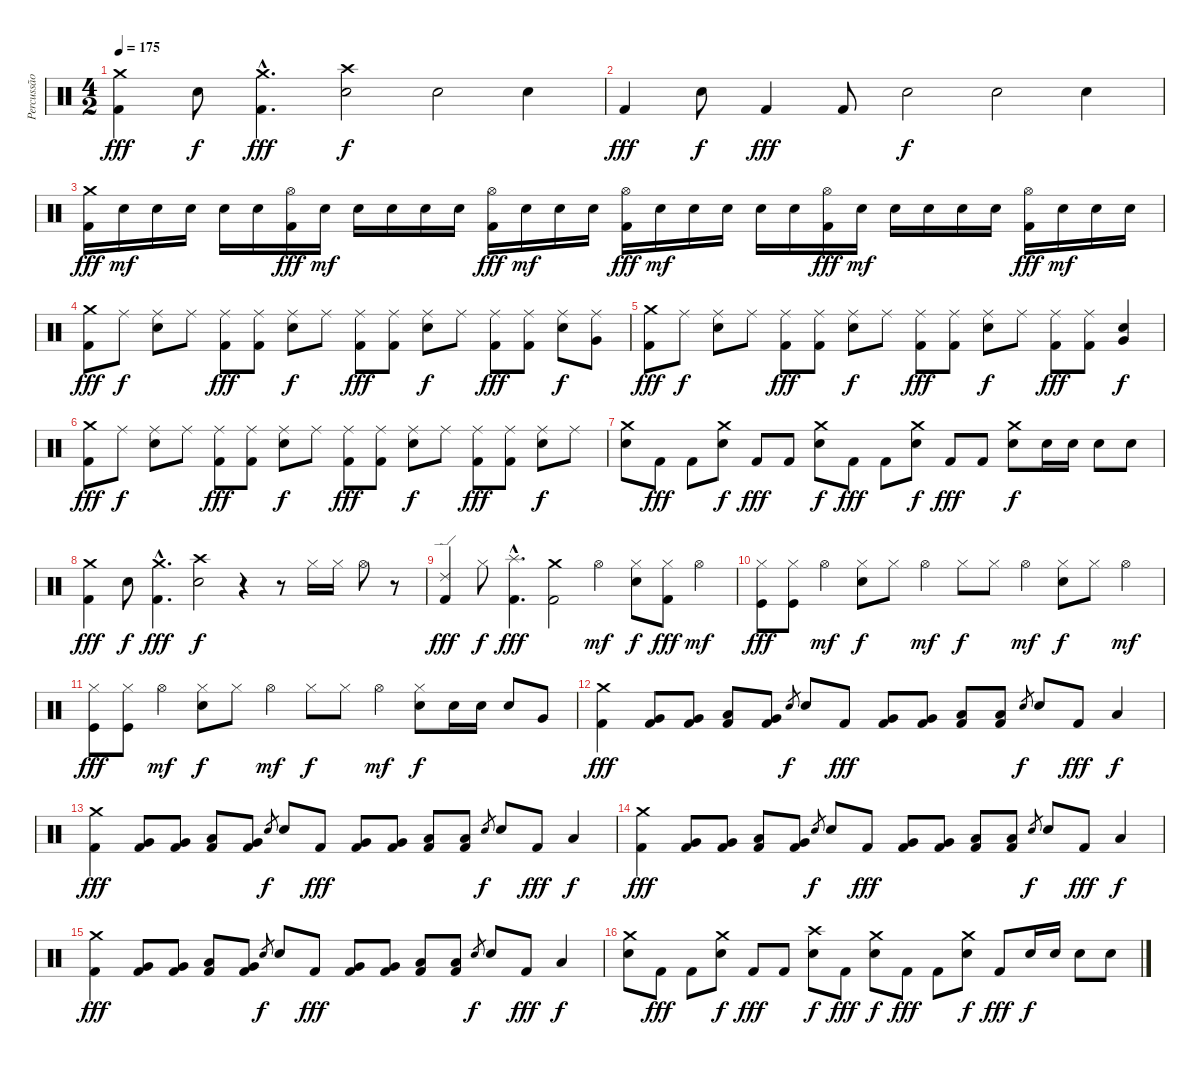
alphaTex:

\track ("Percussão" "Percussão") {instrument percussion}
\staff {score}
\articulation defaults
\ts (4 2)
\tempo 175
\clef neutral
\ks c
("Crash medium (hit)" "Kick (hit) 2").4{dy fff} "Electric Snare (hit)".8{dy f} ("Crash medium (hit)"{hac} "Kick (hit) 2"{hac}).4{d dy fff} ("Crash high (hit)" "Electric Snare (hit)").2{dy f} "Electric Snare (hit)".2 "Electric Snare (hit)".4 |
"Kick (hit) 2".4{dy fff} "Electric Snare (hit)".8{dy f} "Kick (hit) 2".4{dy fff} "Kick (hit) 2".8 "Electric Snare (hit)".2{dy f} "Electric Snare (hit)".2 "Electric Snare (hit)".4 |
("Crash medium (hit)" "Kick (hit) 2").16{dy fff} "Electric Snare (hit)".16{dy mf} "Electric Snare (hit)".16 "Electric Snare (hit)".16 "Electric Snare (hit)".16 "Electric Snare (hit)".16 ("Hi-Hat (open)" "Kick (hit) 2").16{dy fff} "Electric Snare (hit)".16{dy mf} "Electric Snare (hit)".16 "Electric Snare (hit)".16 "Electric Snare (hit)".16 "Electric Snare (hit)".16 ("Hi-Hat (open)" "Kick (hit) 2").16{dy fff} "Electric Snare (hit)".16{dy mf} "Electric Snare (hit)".16 "Electric Snare (hit)".16 ("Hi-Hat (open)" "Kick (hit) 2").16{dy fff} "Electric Snare (hit)".16{dy mf} "Electric Snare (hit)".16 "Electric Snare (hit)".16 "Electric Snare (hit)".16 "Electric Snare (hit)".16 ("Hi-Hat (open)" "Kick (hit) 2").16{dy fff} "Electric Snare (hit)".16{dy mf} "Electric Snare (hit)".16 "Electric Snare (hit)".16 "Electric Snare (hit)".16 "Electric Snare (hit)".16 ("Hi-Hat (open)" "Kick (hit) 2").16{dy fff} "Electric Snare (hit)".16{dy mf} "Electric Snare (hit)".16 "Electric Snare (hit)".16 |
("Crash medium (hit)" "Kick (hit) 2").8{dy fff} "Ride (middle)".8{dy f} ("Ride (middle)" "Electric Snare (hit)").8 "Ride (middle)".8 ("Ride (middle)" "Kick (hit) 2").8{dy fff} ("Ride (middle)" "Kick (hit) 2").8 ("Ride (middle)" "Electric Snare (hit)").8{dy f} "Ride (middle)".8 ("Ride (middle)" "Kick (hit) 2").8{dy fff} ("Ride (middle)" "Kick (hit) 2").8 ("Ride (middle)" "Electric Snare (hit)").8{dy f} "Ride (middle)".8 ("Ride (middle)" "Kick (hit) 2").8{dy fff} ("Ride (middle)" "Kick (hit) 2").8 ("Ride (middle)" "Electric Snare (hit)").8{dy f} ("Ride (middle)" "Very Low Tom (hit)").8 |
("Crash medium (hit)" "Kick (hit) 2").8{dy fff} "Ride (middle)".8{dy f} ("Ride (middle)" "Electric Snare (hit)").8 "Ride (middle)".8 ("Ride (middle)" "Kick (hit) 2").8{dy fff} ("Ride (middle)" "Kick (hit) 2").8 ("Ride (middle)" "Electric Snare (hit)").8{dy f} "Ride (middle)".8 ("Ride (middle)" "Kick (hit) 2").8{dy fff} ("Ride (middle)" "Kick (hit) 2").8 ("Ride (middle)" "Electric Snare (hit)").8{dy f} "Ride (middle)".8 ("Ride (middle)" "Kick (hit) 2").8{dy fff} ("Ride (middle)" "Kick (hit) 2").8 ("Very Low Tom (hit)" "Electric Snare (hit)").4{dy f} |
("Crash medium (hit)" "Kick (hit) 2").8{dy fff} "Ride (middle)".8{dy f} ("Ride (middle)" "Electric Snare (hit)").8 "Ride (middle)".8 ("Ride (middle)" "Kick (hit) 2").8{dy fff} ("Ride (middle)" "Kick (hit) 2").8 ("Ride (middle)" "Electric Snare (hit)").8{dy f} "Ride (middle)".8 ("Ride (middle)" "Kick (hit) 2").8{dy fff} ("Ride (middle)" "Kick (hit) 2").8 ("Ride (middle)" "Electric Snare (hit)").8{dy f} "Ride (middle)".8 ("Ride (middle)" "Kick (hit) 2").8{dy fff} ("Ride (middle)" "Kick (hit) 2").8 ("Ride (middle)" "Electric Snare (hit)").8{dy f} "Ride (middle)".8 |
("Crash medium (hit)" "Electric Snare (hit)").8 "Kick (hit) 2".8{dy fff} "Kick (hit) 2".8 ("Crash medium (hit)" "Electric Snare (hit)").8{dy f} "Kick (hit) 2".8{dy fff} "Kick (hit) 2".8 ("Crash medium (hit)" "Electric Snare (hit)").8{dy f} "Kick (hit) 2".8{dy fff} "Kick (hit) 2".8 ("Crash medium (hit)" "Electric Snare (hit)").8{dy f} "Kick (hit) 2".8{dy fff} "Kick (hit) 2".8 ("Crash medium (hit)" "Electric Snare (hit)").8{dy f} "Electric Snare (hit)".16 "Electric Snare (hit)".16 "Electric Snare (hit)".8 "Electric Snare (hit)".8 |
("Crash medium (hit)" "Kick (hit) 2").4{dy fff} "Electric Snare (hit)".8{dy f} ("Crash medium (hit)"{hac} "Kick (hit) 2"{hac}).4{d dy fff} ("Crash high (hit)" "Electric Snare (hit)").2{dy f} r.4 r.8 "Hi-Hat (closed)".16 "Hi-Hat (closed)".16 "Hi-Hat (open)".8 r.8 |
("Ride (edge) 2" "Kick (hit) 2").4{dy fff} "Hi-Hat (closed)".8{dy f} ("Splash (hit)"{hac} "Kick (hit) 2"{hac}).4{d dy fff} ("Crash medium (hit)" "Kick (hit) 2").2 "Hi-Hat (open)".4{dy mf} ("Hi-Hat (closed)" "Electric Snare (hit)").8{dy f} ("Hi-Hat (closed)" "Kick (hit) 2").8{dy fff} "Hi-Hat (open)".4{dy mf} |
("Hi-Hat (closed)" "Kick (hit)").8{dy fff} ("Hi-Hat (closed)" "Kick (hit)").8 "Hi-Hat (open)".4{dy mf} ("Hi-Hat (closed)" "Electric Snare (hit)").8{dy f} "Hi-Hat (closed)".8 "Hi-Hat (open)".4{dy mf} "Hi-Hat (closed)".8{dy f} "Hi-Hat (closed)".8 "Hi-Hat (open)".4{dy mf} ("Hi-Hat (closed)" "Electric Snare (hit)").8{dy f} "Hi-Hat (closed)".8 "Hi-Hat (open)".4{dy mf} |
("Hi-Hat (closed)" "Kick (hit)").8{dy fff} ("Hi-Hat (closed)" "Kick (hit)").8 "Hi-Hat (open)".4{dy mf} ("Hi-Hat (closed)" "Electric Snare (hit)").8{dy f} "Hi-Hat (closed)".8 "Hi-Hat (open)".4{dy mf} "Hi-Hat (closed)".8{dy f} "Hi-Hat (closed)".8 "Hi-Hat (open)".4{dy mf} ("Hi-Hat (closed)" "Electric Snare (hit)").8{dy f} "Electric Snare (hit)".16 "Electric Snare (hit)".16 "Electric Snare (hit)".8 "Very Low Tom (hit)".8 |
("Crash medium (hit)" "Kick (hit) 2").4{dy fff} ("Very Low Tom (hit)" "Kick (hit) 2").8 ("Very Low Tom (hit)" "Kick (hit) 2").8 ("Low Tom (hit)" "Kick (hit) 2").8 ("Very Low Tom (hit)" "Kick (hit) 2").8 "Electric Snare (hit)".8{gr dy f} "Electric Snare (hit)".8 "Kick (hit) 2".8{dy fff} ("Very Low Tom (hit)" "Kick (hit) 2").8 ("Very Low Tom (hit)" "Kick (hit) 2").8 ("Low Tom (hit)" "Kick (hit) 2").8 ("Low Tom (hit)" "Kick (hit) 2").8 "Electric Snare (hit)".8{gr dy f} "Electric Snare (hit)".8 "Kick (hit) 2".8{dy fff} "Low Tom (hit)".4{dy f} |
("Crash medium (hit)" "Kick (hit) 2").4{dy fff} ("Very Low Tom (hit)" "Kick (hit) 2").8 ("Very Low Tom (hit)" "Kick (hit) 2").8 ("Low Tom (hit)" "Kick (hit) 2").8 ("Very Low Tom (hit)" "Kick (hit) 2").8 "Electric Snare (hit)".8{gr dy f} "Electric Snare (hit)".8 "Kick (hit) 2".8{dy fff} ("Very Low Tom (hit)" "Kick (hit) 2").8 ("Very Low Tom (hit)" "Kick (hit) 2").8 ("Low Tom (hit)" "Kick (hit) 2").8 ("Low Tom (hit)" "Kick (hit) 2").8 "Electric Snare (hit)".8{gr dy f} "Electric Snare (hit)".8 "Kick (hit) 2".8{dy fff} "Low Tom (hit)".4{dy f} |
("Crash medium (hit)" "Kick (hit) 2").4{dy fff} ("Very Low Tom (hit)" "Kick (hit) 2").8 ("Very Low Tom (hit)" "Kick (hit) 2").8 ("Low Tom (hit)" "Kick (hit) 2").8 ("Very Low Tom (hit)" "Kick (hit) 2").8 "Electric Snare (hit)".8{gr dy f} "Electric Snare (hit)".8 "Kick (hit) 2".8{dy fff} ("Very Low Tom (hit)" "Kick (hit) 2").8 ("Very Low Tom (hit)" "Kick (hit) 2").8 ("Low Tom (hit)" "Kick (hit) 2").8 ("Low Tom (hit)" "Kick (hit) 2").8 "Electric Snare (hit)".8{gr dy f} "Electric Snare (hit)".8 "Kick (hit) 2".8{dy fff} "Low Tom (hit)".4{dy f} |
("Crash medium (hit)" "Kick (hit) 2").4{dy fff} ("Very Low Tom (hit)" "Kick (hit) 2").8 ("Very Low Tom (hit)" "Kick (hit) 2").8 ("Low Tom (hit)" "Kick (hit) 2").8 ("Very Low Tom (hit)" "Kick (hit) 2").8 "Electric Snare (hit)".8{gr dy f} "Electric Snare (hit)".8 "Kick (hit) 2".8{dy fff} ("Very Low Tom (hit)" "Kick (hit) 2").8 ("Very Low Tom (hit)" "Kick (hit) 2").8 ("Low Tom (hit)" "Kick (hit) 2").8 ("Low Tom (hit)" "Kick (hit) 2").8 "Electric Snare (hit)".8{gr dy f} "Electric Snare (hit)".8 "Kick (hit) 2".8{dy fff} "Low Tom (hit)".4{dy f} |
("Crash medium (hit)" "Electric Snare (hit)").8 "Kick (hit) 2".8{dy fff} "Kick (hit) 2".8 ("Crash medium (hit)" "Electric Snare (hit)").8{dy f} "Kick (hit) 2".8{dy fff} "Kick (hit) 2".8 ("Crash high (hit)" "Electric Snare (hit)").8{dy f} "Kick (hit) 2".8{dy fff} ("Crash medium (hit)" "Electric Snare (hit)").8{dy f} "Kick (hit) 2".8{dy fff} "Kick (hit) 2".8 ("Crash medium (hit)" "Electric Snare (hit)").8{dy f} "Kick (hit) 2".8{dy fff} "Electric Snare (hit)".16{dy f} "Electric Snare (hit)".16 "Electric Snare (hit)".8 "Electric Snare (hit)".8
